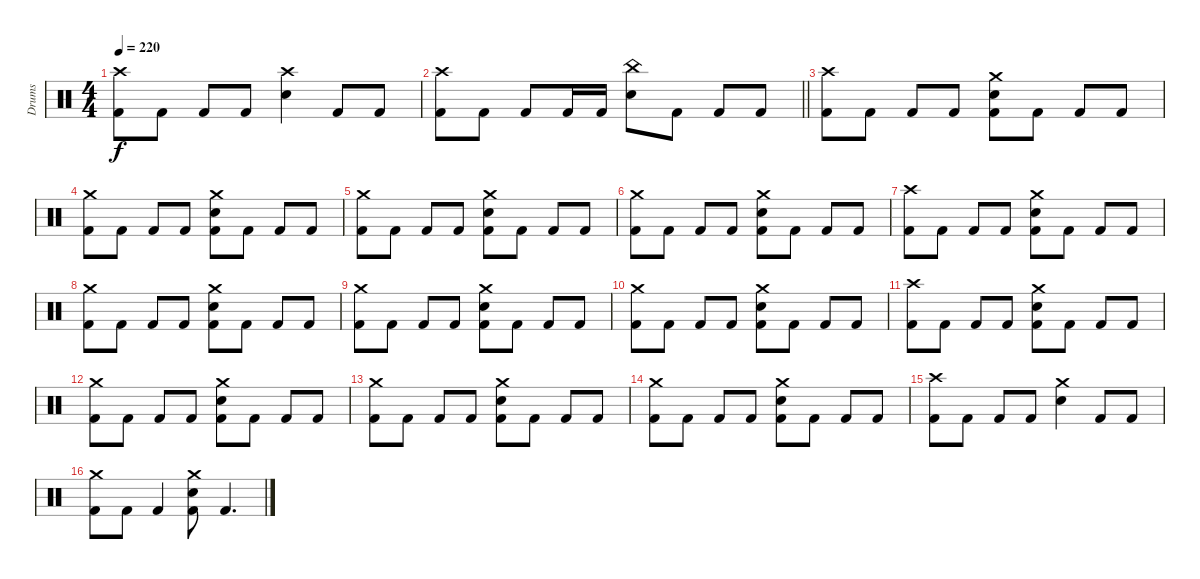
\track ("Drums" "Drums") {instrument percussion}
\staff {score}
\articulation defaults
\ts (4 4)
\tempo 220
\clef neutral
\ks c
("Crash high (hit)" "Kick (hit) 2").8{dy f} "Kick (hit) 2".8 "Kick (hit) 2".8 "Kick (hit) 2".8 ("Crash high (hit)" "Snare (hit) 2").4 "Kick (hit) 2".8 "Kick (hit) 2".8 |
\barLineRight lightlight
("Crash high (hit)" "Kick (hit) 2").8 "Kick (hit) 2".8 "Kick (hit) 2".8 "Kick (hit) 2".16 "Kick (hit) 2".16 ("China (hit)" "Snare (hit) 2").8 "Kick (hit) 2".8 "Kick (hit) 2".8 "Kick (hit) 2".8 |
("Crash high (hit)" "Kick (hit) 2").8 "Kick (hit) 2".8 "Kick (hit) 2".8 "Kick (hit) 2".8 ("Crash medium (hit)" "Snare (hit) 2" "Kick (hit) 2").8 "Kick (hit) 2".8 "Kick (hit) 2".8 "Kick (hit) 2".8 |
("Crash medium (hit)" "Kick (hit) 2").8 "Kick (hit) 2".8 "Kick (hit) 2".8 "Kick (hit) 2".8 ("Crash medium (hit)" "Snare (hit) 2" "Kick (hit) 2").8 "Kick (hit) 2".8 "Kick (hit) 2".8 "Kick (hit) 2".8 |
("Crash medium (hit)" "Kick (hit) 2").8 "Kick (hit) 2".8 "Kick (hit) 2".8 "Kick (hit) 2".8 ("Crash medium (hit)" "Snare (hit) 2" "Kick (hit) 2").8 "Kick (hit) 2".8 "Kick (hit) 2".8 "Kick (hit) 2".8 |
("Crash medium (hit)" "Kick (hit) 2").8 "Kick (hit) 2".8 "Kick (hit) 2".8 "Kick (hit) 2".8 ("Crash medium (hit)" "Snare (hit) 2" "Kick (hit) 2").8 "Kick (hit) 2".8 "Kick (hit) 2".8 "Kick (hit) 2".8 |
("Crash high (hit)" "Kick (hit) 2").8 "Kick (hit) 2".8 "Kick (hit) 2".8 "Kick (hit) 2".8 ("Crash medium (hit)" "Snare (hit) 2" "Kick (hit) 2").8 "Kick (hit) 2".8 "Kick (hit) 2".8 "Kick (hit) 2".8 |
("Crash medium (hit)" "Kick (hit) 2").8 "Kick (hit) 2".8 "Kick (hit) 2".8 "Kick (hit) 2".8 ("Crash medium (hit)" "Snare (hit) 2" "Kick (hit) 2").8 "Kick (hit) 2".8 "Kick (hit) 2".8 "Kick (hit) 2".8 |
("Crash medium (hit)" "Kick (hit) 2").8 "Kick (hit) 2".8 "Kick (hit) 2".8 "Kick (hit) 2".8 ("Crash medium (hit)" "Snare (hit) 2" "Kick (hit) 2").8 "Kick (hit) 2".8 "Kick (hit) 2".8 "Kick (hit) 2".8 |
("Crash medium (hit)" "Kick (hit) 2").8 "Kick (hit) 2".8 "Kick (hit) 2".8 "Kick (hit) 2".8 ("Crash medium (hit)" "Snare (hit) 2" "Kick (hit) 2").8 "Kick (hit) 2".8 "Kick (hit) 2".8 "Kick (hit) 2".8 |
("Crash high (hit)" "Kick (hit) 2").8 "Kick (hit) 2".8 "Kick (hit) 2".8 "Kick (hit) 2".8 ("Crash medium (hit)" "Snare (hit) 2" "Kick (hit) 2").8 "Kick (hit) 2".8 "Kick (hit) 2".8 "Kick (hit) 2".8 |
("Crash medium (hit)" "Kick (hit) 2").8 "Kick (hit) 2".8 "Kick (hit) 2".8 "Kick (hit) 2".8 ("Crash medium (hit)" "Snare (hit) 2" "Kick (hit) 2").8 "Kick (hit) 2".8 "Kick (hit) 2".8 "Kick (hit) 2".8 |
("Crash medium (hit)" "Kick (hit) 2").8 "Kick (hit) 2".8 "Kick (hit) 2".8 "Kick (hit) 2".8 ("Crash medium (hit)" "Snare (hit) 2" "Kick (hit) 2").8 "Kick (hit) 2".8 "Kick (hit) 2".8 "Kick (hit) 2".8 |
("Crash medium (hit)" "Kick (hit) 2").8 "Kick (hit) 2".8 "Kick (hit) 2".8 "Kick (hit) 2".8 ("Crash medium (hit)" "Snare (hit) 2" "Kick (hit) 2").8 "Kick (hit) 2".8 "Kick (hit) 2".8 "Kick (hit) 2".8 |
("Crash high (hit)" "Kick (hit) 2").8 "Kick (hit) 2".8 "Kick (hit) 2".8 "Kick (hit) 2".8 ("Crash medium (hit)" "Snare (hit) 2").4 "Kick (hit) 2".8 "Kick (hit) 2".8 |
("Crash medium (hit)" "Kick (hit) 2").8 "Kick (hit) 2".8 "Kick (hit) 2".4 ("Crash medium (hit)" "Snare (hit) 2" "Kick (hit) 2").8 "Kick (hit) 2".4{d}
